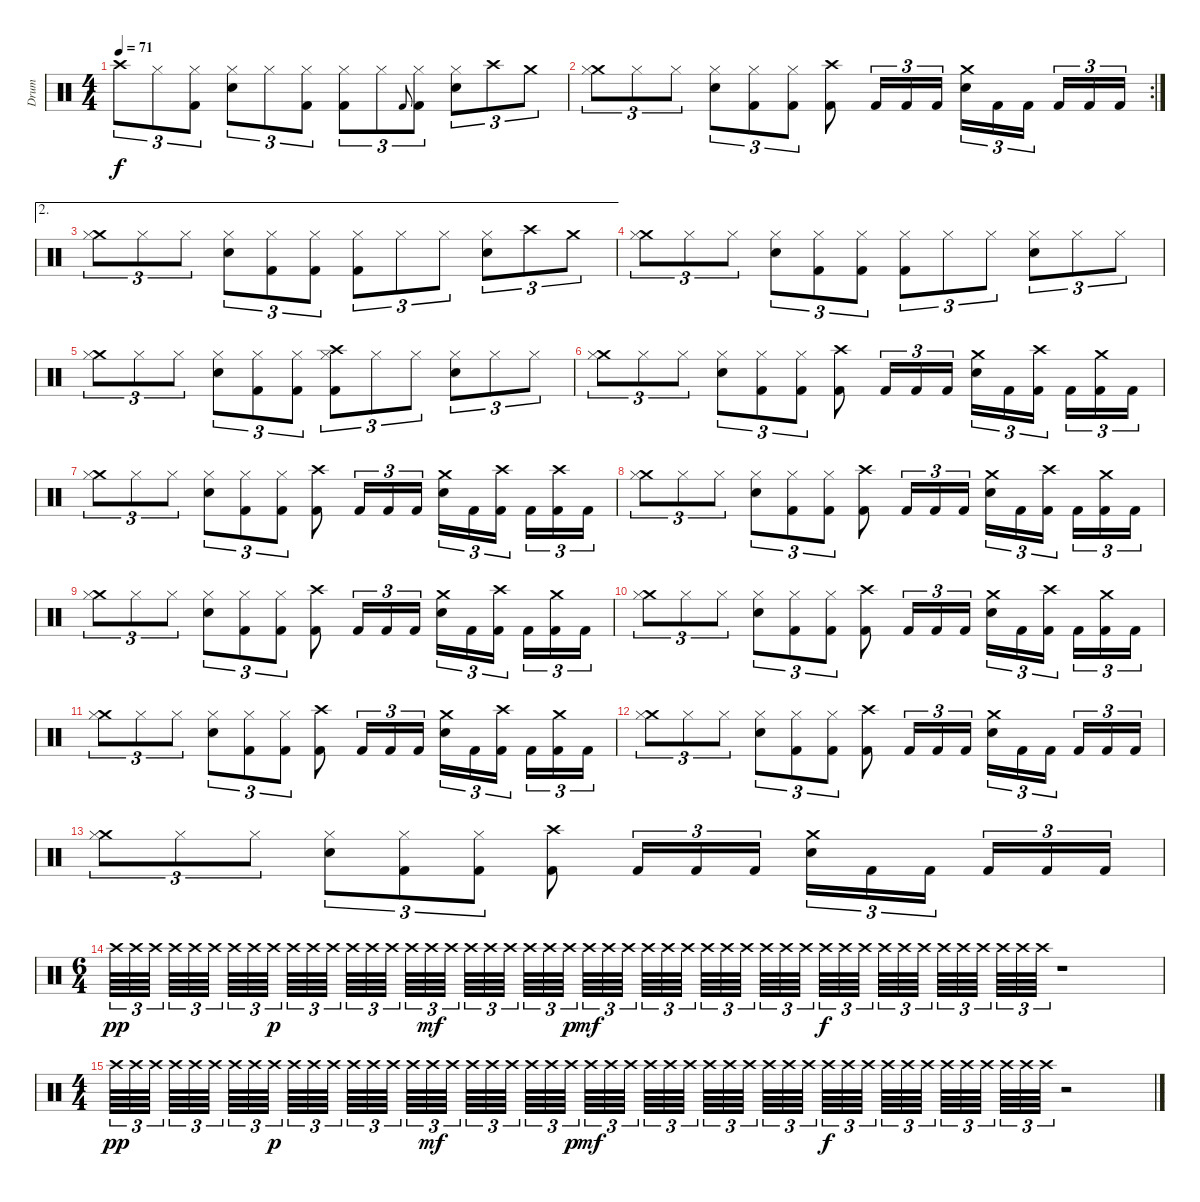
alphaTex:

\track ("Drum" "Drum") {instrument percussion}
\staff {score}
\articulation defaults
\ts (4 4)
\tempo 71
\clef neutral
\ks c "Crash high (hit)".8{tu (3 2) dy f} "Hi-Hat (closed)".8{tu (3 2)}
("Hi-Hat (closed)" "Kick (hit) 2").8{tu (3 2)} ("Hi-Hat (closed)" "Electric Snare (hit)").8{tu (3 2)} "Hi-Hat (closed)".8{tu (3 2)} ("Hi-Hat (closed)" "Kick (hit) 2").8{tu (3 2)} ("Hi-Hat (closed)" "Kick (hit) 2").8{tu (3 2)} "Hi-Hat (closed)".8{tu (3 2)} "Kick (hit) 2".8{gr onbeat} ("Hi-Hat (closed)" "Kick (hit) 2").8{tu (3 2)} ("Hi-Hat (closed)" "Electric Snare (hit)").8{tu (3 2)} "Crash high (hit)".8{tu (3 2)} "Crash medium (hit)".8{tu (3 2)} |
\rc 2
("Crash medium (hit)" "Hi-Hat (closed)").8{tu (3 2)} "Hi-Hat (closed)".8{tu (3 2)} "Hi-Hat (closed)".8{tu (3 2)} ("Hi-Hat (closed)" "Electric Snare (hit)").8{tu (3 2)} ("Hi-Hat (closed)" "Kick (hit) 2").8{tu (3 2)} ("Hi-Hat (closed)" "Kick (hit) 2").8{tu (3 2)} ("Crash high (hit)" "Kick (hit) 2").8 "Kick (hit) 2".16{tu (3 2)} "Kick (hit) 2".16{tu (3 2)} "Kick (hit) 2".16{tu (3 2)} ("Crash medium (hit)" "Electric Snare (hit)").16{tu (3 2)} "Kick (hit) 2".16{tu (3 2)} "Kick (hit) 2".16{tu (3 2) beam splitsecondary} "Kick (hit) 2".16{tu (3 2)} "Kick (hit) 2".16{tu (3 2)} "Kick (hit) 2".16{tu (3 2)} |
\ae 2
("Crash medium (hit)" "Hi-Hat (closed)").8{tu (3 2)} "Hi-Hat (closed)".8{tu (3 2)} "Hi-Hat (closed)".8{tu (3 2)} ("Hi-Hat (closed)" "Electric Snare (hit)").8{tu (3 2)} ("Hi-Hat (closed)" "Kick (hit) 2").8{tu (3 2)} ("Hi-Hat (closed)" "Kick (hit) 2").8{tu (3 2)} ("Hi-Hat (closed)" "Kick (hit) 2").8{tu (3 2)} "Hi-Hat (closed)".8{tu (3 2)} "Hi-Hat (closed)".8{tu (3 2)} ("Hi-Hat (closed)" "Electric Snare (hit)").8{tu (3 2)} "Crash high (hit)".8{tu (3 2)} "Crash medium (hit)".8{tu (3 2)} |
("Crash medium (hit)" "Hi-Hat (closed)").8{tu (3 2)} "Hi-Hat (closed)".8{tu (3 2)} "Hi-Hat (closed)".8{tu (3 2)} ("Hi-Hat (closed)" "Electric Snare (hit)").8{tu (3 2)} ("Hi-Hat (closed)" "Kick (hit) 2").8{tu (3 2)} ("Hi-Hat (closed)" "Kick (hit) 2").8{tu (3 2)} ("Hi-Hat (closed)" "Kick (hit) 2").8{tu (3 2)} "Hi-Hat (closed)".8{tu (3 2)} "Hi-Hat (closed)".8{tu (3 2)} ("Hi-Hat (closed)" "Electric Snare (hit)").8{tu (3 2)} "Hi-Hat (closed)".8{tu (3 2)} "Hi-Hat (closed)".8{tu (3 2)} |
("Crash medium (hit)" "Hi-Hat (closed)").8{tu (3 2)} "Hi-Hat (closed)".8{tu (3 2)} "Hi-Hat (closed)".8{tu (3 2)} ("Hi-Hat (closed)" "Electric Snare (hit)").8{tu (3 2)} ("Hi-Hat (closed)" "Kick (hit) 2").8{tu (3 2)} ("Hi-Hat (closed)" "Kick (hit) 2").8{tu (3 2)} ("Crash high (hit)" "Hi-Hat (closed)" "Kick (hit) 2").8{tu (3 2)} "Hi-Hat (closed)".8{tu (3 2)} "Hi-Hat (closed)".8{tu (3 2)} ("Hi-Hat (closed)" "Electric Snare (hit)").8{tu (3 2)} "Hi-Hat (closed)".8{tu (3 2)} "Hi-Hat (closed)".8{tu (3 2)} |
("Crash medium (hit)" "Hi-Hat (closed)").8{tu (3 2)} "Hi-Hat (closed)".8{tu (3 2)} "Hi-Hat (closed)".8{tu (3 2)} ("Hi-Hat (closed)" "Electric Snare (hit)").8{tu (3 2)} ("Hi-Hat (closed)" "Kick (hit) 2").8{tu (3 2)} ("Hi-Hat (closed)" "Kick (hit) 2").8{tu (3 2)} ("Crash high (hit)" "Kick (hit) 2").8 "Kick (hit) 2".16{tu (3 2)} "Kick (hit) 2".16{tu (3 2)} "Kick (hit) 2".16{tu (3 2)} ("Crash medium (hit)" "Electric Snare (hit)").16{tu (3 2)} "Kick (hit) 2".16{tu (3 2)} ("Crash high (hit)" "Kick (hit) 2").16{tu (3 2) beam splitsecondary} "Kick (hit) 2".16{tu (3 2)} ("Crash medium (hit)" "Kick (hit) 2").16{tu (3 2)} "Kick (hit) 2".16{tu (3 2)} |
("Crash medium (hit)" "Hi-Hat (closed)").8{tu (3 2)} "Hi-Hat (closed)".8{tu (3 2)} "Hi-Hat (closed)".8{tu (3 2)} ("Hi-Hat (closed)" "Electric Snare (hit)").8{tu (3 2)} ("Hi-Hat (closed)" "Kick (hit) 2").8{tu (3 2)} ("Hi-Hat (closed)" "Kick (hit) 2").8{tu (3 2)} ("Crash high (hit)" "Kick (hit) 2").8 "Kick (hit) 2".16{tu (3 2)} "Kick (hit) 2".16{tu (3 2)} "Kick (hit) 2".16{tu (3 2)} ("Crash medium (hit)" "Electric Snare (hit)").16{tu (3 2)} "Kick (hit) 2".16{tu (3 2)} ("Crash high (hit)" "Kick (hit) 2").16{tu (3 2) beam splitsecondary} "Kick (hit) 2".16{tu (3 2)} ("Crash high (hit)" "Kick (hit) 2").16{tu (3 2)} "Kick (hit) 2".16{tu (3 2)} |
("Crash medium (hit)" "Hi-Hat (closed)").8{tu (3 2)} "Hi-Hat (closed)".8{tu (3 2)} "Hi-Hat (closed)".8{tu (3 2)} ("Hi-Hat (closed)" "Electric Snare (hit)").8{tu (3 2)} ("Hi-Hat (closed)" "Kick (hit) 2").8{tu (3 2)} ("Hi-Hat (closed)" "Kick (hit) 2").8{tu (3 2)} ("Crash high (hit)" "Kick (hit) 2").8 "Kick (hit) 2".16{tu (3 2)} "Kick (hit) 2".16{tu (3 2)} "Kick (hit) 2".16{tu (3 2)} ("Crash medium (hit)" "Electric Snare (hit)").16{tu (3 2)} "Kick (hit) 2".16{tu (3 2)} ("Crash high (hit)" "Kick (hit) 2").16{tu (3 2) beam splitsecondary} "Kick (hit) 2".16{tu (3 2)} ("Crash medium (hit)" "Kick (hit) 2").16{tu (3 2)} "Kick (hit) 2".16{tu (3 2)} |
("Crash medium (hit)" "Hi-Hat (closed)").8{tu (3 2)} "Hi-Hat (closed)".8{tu (3 2)} "Hi-Hat (closed)".8{tu (3 2)} ("Hi-Hat (closed)" "Electric Snare (hit)").8{tu (3 2)} ("Hi-Hat (closed)" "Kick (hit) 2").8{tu (3 2)} ("Hi-Hat (closed)" "Kick (hit) 2").8{tu (3 2)} ("Crash high (hit)" "Kick (hit) 2").8 "Kick (hit) 2".16{tu (3 2)} "Kick (hit) 2".16{tu (3 2)} "Kick (hit) 2".16{tu (3 2)} ("Crash medium (hit)" "Electric Snare (hit)").16{tu (3 2)} "Kick (hit) 2".16{tu (3 2)} ("Crash high (hit)" "Kick (hit) 2").16{tu (3 2) beam splitsecondary} "Kick (hit) 2".16{tu (3 2)} ("Crash medium (hit)" "Kick (hit) 2").16{tu (3 2)} "Kick (hit) 2".16{tu (3 2)} |
("Crash medium (hit)" "Hi-Hat (closed)").8{tu (3 2)} "Hi-Hat (closed)".8{tu (3 2)} "Hi-Hat (closed)".8{tu (3 2)} ("Hi-Hat (closed)" "Electric Snare (hit)").8{tu (3 2)} ("Hi-Hat (closed)" "Kick (hit) 2").8{tu (3 2)} ("Hi-Hat (closed)" "Kick (hit) 2").8{tu (3 2)} ("Crash high (hit)" "Kick (hit) 2").8 "Kick (hit) 2".16{tu (3 2)} "Kick (hit) 2".16{tu (3 2)} "Kick (hit) 2".16{tu (3 2)} ("Crash medium (hit)" "Electric Snare (hit)").16{tu (3 2)} "Kick (hit) 2".16{tu (3 2)} ("Crash high (hit)" "Kick (hit) 2").16{tu (3 2) beam splitsecondary} "Kick (hit) 2".16{tu (3 2)} ("Crash medium (hit)" "Kick (hit) 2").16{tu (3 2)} "Kick (hit) 2".16{tu (3 2)} |
("Crash medium (hit)" "Hi-Hat (closed)").8{tu (3 2)} "Hi-Hat (closed)".8{tu (3 2)} "Hi-Hat (closed)".8{tu (3 2)} ("Hi-Hat (closed)" "Electric Snare (hit)").8{tu (3 2)} ("Hi-Hat (closed)" "Kick (hit) 2").8{tu (3 2)} ("Hi-Hat (closed)" "Kick (hit) 2").8{tu (3 2)} ("Crash high (hit)" "Kick (hit) 2").8 "Kick (hit) 2".16{tu (3 2)} "Kick (hit) 2".16{tu (3 2)} "Kick (hit) 2".16{tu (3 2)} ("Crash medium (hit)" "Electric Snare (hit)").16{tu (3 2)} "Kick (hit) 2".16{tu (3 2)} ("Crash high (hit)" "Kick (hit) 2").16{tu (3 2) beam splitsecondary} "Kick (hit) 2".16{tu (3 2)} ("Crash medium (hit)" "Kick (hit) 2").16{tu (3 2)} "Kick (hit) 2".16{tu (3 2)} |
("Crash medium (hit)" "Hi-Hat (closed)").8{tu (3 2)} "Hi-Hat (closed)".8{tu (3 2)} "Hi-Hat (closed)".8{tu (3 2)} ("Hi-Hat (closed)" "Electric Snare (hit)").8{tu (3 2)} ("Hi-Hat (closed)" "Kick (hit) 2").8{tu (3 2)} ("Hi-Hat (closed)" "Kick (hit) 2").8{tu (3 2)} ("Crash high (hit)" "Kick (hit) 2").8 "Kick (hit) 2".16{tu (3 2)} "Kick (hit) 2".16{tu (3 2)} "Kick (hit) 2".16{tu (3 2)} ("Crash medium (hit)" "Electric Snare (hit)").16{tu (3 2)} "Kick (hit) 2".16{tu (3 2)} "Kick (hit) 2".16{tu (3 2) beam splitsecondary} "Kick (hit) 2".16{tu (3 2)} "Kick (hit) 2".16{tu (3 2)} "Kick (hit) 2".16{tu (3 2)} |
("Crash medium (hit)" "Hi-Hat (closed)").8{tu (3 2)} "Hi-Hat (closed)".8{tu (3 2)} "Hi-Hat (closed)".8{tu (3 2)} ("Hi-Hat (closed)" "Electric Snare (hit)").8{tu (3 2)} ("Hi-Hat (closed)" "Kick (hit) 2").8{tu (3 2)} ("Hi-Hat (closed)" "Kick (hit) 2").8{tu (3 2)} ("Crash high (hit)" "Kick (hit) 2").8 "Kick (hit) 2".16{tu (3 2)} "Kick (hit) 2".16{tu (3 2)} "Kick (hit) 2".16{tu (3 2)} ("Crash medium (hit)" "Electric Snare (hit)").16{tu (3 2)} "Kick (hit) 2".16{tu (3 2)} "Kick (hit) 2".16{tu (3 2) beam splitsecondary} "Kick (hit) 2".16{tu (3 2)} "Kick (hit) 2".16{tu (3 2)} "Kick (hit) 2".16{tu (3 2)} |
\ts (6 4)
"Crash high (hit)".64{tu (3 2) dy pp} "Crash high (hit)".64{tu (3 2)} "Crash high (hit)".64{tu (3 2) beam splitsecondary} "Crash high (hit)".64{tu (3 2)} "Crash high (hit)".64{tu (3 2)} "Crash high (hit)".64{tu (3 2) beam splitsecondary} "Crash high (hit)".64{tu (3 2)} "Crash high (hit)".64{tu (3 2)} "Crash high (hit)".64{tu (3 2) dy p beam splitsecondary} "Crash high (hit)".64{tu (3 2)} "Crash high (hit)".64{tu (3 2)} "Crash high (hit)".64{tu (3 2) beam splitsecondary} "Crash high (hit)".64{tu (3 2)} "Crash high (hit)".64{tu (3 2)} "Crash high (hit)".64{tu (3 2) beam splitsecondary} "Crash high (hit)".64{tu (3 2)} "Crash high (hit)".64{tu (3 2) dy mf} "Crash high (hit)".64{tu (3 2) beam splitsecondary} "Crash high (hit)".64{tu (3 2)} "Crash high (hit)".64{tu (3 2)} "Crash high (hit)".64{tu (3 2) beam splitsecondary} "Crash high (hit)".64{tu (3 2)} "Crash high (hit)".64{tu (3 2)} "Crash high (hit)".64{tu (3 2) dy p beam splitsecondary} "Crash high (hit)".64{tu (3 2) dy mf} "Crash high (hit)".64{tu (3 2)} "Crash high (hit)".64{tu (3 2) beam splitsecondary} "Crash high (hit)".64{tu (3 2)} "Crash high (hit)".64{tu (3 2)} "Crash high (hit)".64{tu (3 2) beam splitsecondary} "Crash high (hit)".64{tu (3 2)} "Crash high (hit)".64{tu (3 2)} "Crash high (hit)".64{tu (3 2) beam splitsecondary} "Crash high (hit)".64{tu (3 2)} "Crash high (hit)".64{tu (3 2)} "Crash high (hit)".64{tu (3 2) beam splitsecondary} "Crash high (hit)".64{tu (3 2) dy f} "Crash high (hit)".64{tu (3 2)} "Crash high (hit)".64{tu (3 2) beam splitsecondary} "Crash high (hit)".64{tu (3 2)} "Crash high (hit)".64{tu (3 2)} "Crash high (hit)".64{tu (3 2) beam splitsecondary} "Crash high (hit)".64{tu (3 2)} "Crash high (hit)".64{tu (3 2)} "Crash high (hit)".64{tu (3 2) beam splitsecondary} "Crash high (hit)".64{tu (3 2)} "Crash high (hit)".64{tu (3 2)} "Crash high (hit)".64{tu (3 2)} r.1 |
\ts (4 4)
"Crash high (hit)".64{tu (3 2) dy pp} "Crash high (hit)".64{tu (3 2)} "Crash high (hit)".64{tu (3 2) beam splitsecondary} "Crash high (hit)".64{tu (3 2)} "Crash high (hit)".64{tu (3 2)} "Crash high (hit)".64{tu (3 2) beam splitsecondary} "Crash high (hit)".64{tu (3 2)} "Crash high (hit)".64{tu (3 2)} "Crash high (hit)".64{tu (3 2) dy p beam splitsecondary} "Crash high (hit)".64{tu (3 2)} "Crash high (hit)".64{tu (3 2)} "Crash high (hit)".64{tu (3 2) beam splitsecondary} "Crash high (hit)".64{tu (3 2)} "Crash high (hit)".64{tu (3 2)} "Crash high (hit)".64{tu (3 2) beam splitsecondary} "Crash high (hit)".64{tu (3 2)} "Crash high (hit)".64{tu (3 2) dy mf} "Crash high (hit)".64{tu (3 2) beam splitsecondary} "Crash high (hit)".64{tu (3 2)} "Crash high (hit)".64{tu (3 2)} "Crash high (hit)".64{tu (3 2) beam splitsecondary} "Crash high (hit)".64{tu (3 2)} "Crash high (hit)".64{tu (3 2)} "Crash high (hit)".64{tu (3 2) dy p} "Crash high (hit)".64{tu (3 2) dy mf} "Crash high (hit)".64{tu (3 2)} "Crash high (hit)".64{tu (3 2) beam splitsecondary} "Crash high (hit)".64{tu (3 2)} "Crash high (hit)".64{tu (3 2)} "Crash high (hit)".64{tu (3 2) beam splitsecondary} "Crash high (hit)".64{tu (3 2)} "Crash high (hit)".64{tu (3 2)} "Crash high (hit)".64{tu (3 2) beam splitsecondary} "Crash high (hit)".64{tu (3 2)} "Crash high (hit)".64{tu (3 2)} "Crash high (hit)".64{tu (3 2) beam splitsecondary} "Crash high (hit)".64{tu (3 2) dy f} "Crash high (hit)".64{tu (3 2)} "Crash high (hit)".64{tu (3 2) beam splitsecondary} "Crash high (hit)".64{tu (3 2)} "Crash high (hit)".64{tu (3 2)} "Crash high (hit)".64{tu (3 2) beam splitsecondary} "Crash high (hit)".64{tu (3 2)} "Crash high (hit)".64{tu (3 2)} "Crash high (hit)".64{tu (3 2) beam splitsecondary} "Crash high (hit)".64{tu (3 2)} "Crash high (hit)".64{tu (3 2)} "Crash high (hit)".64{tu (3 2)} r.2
